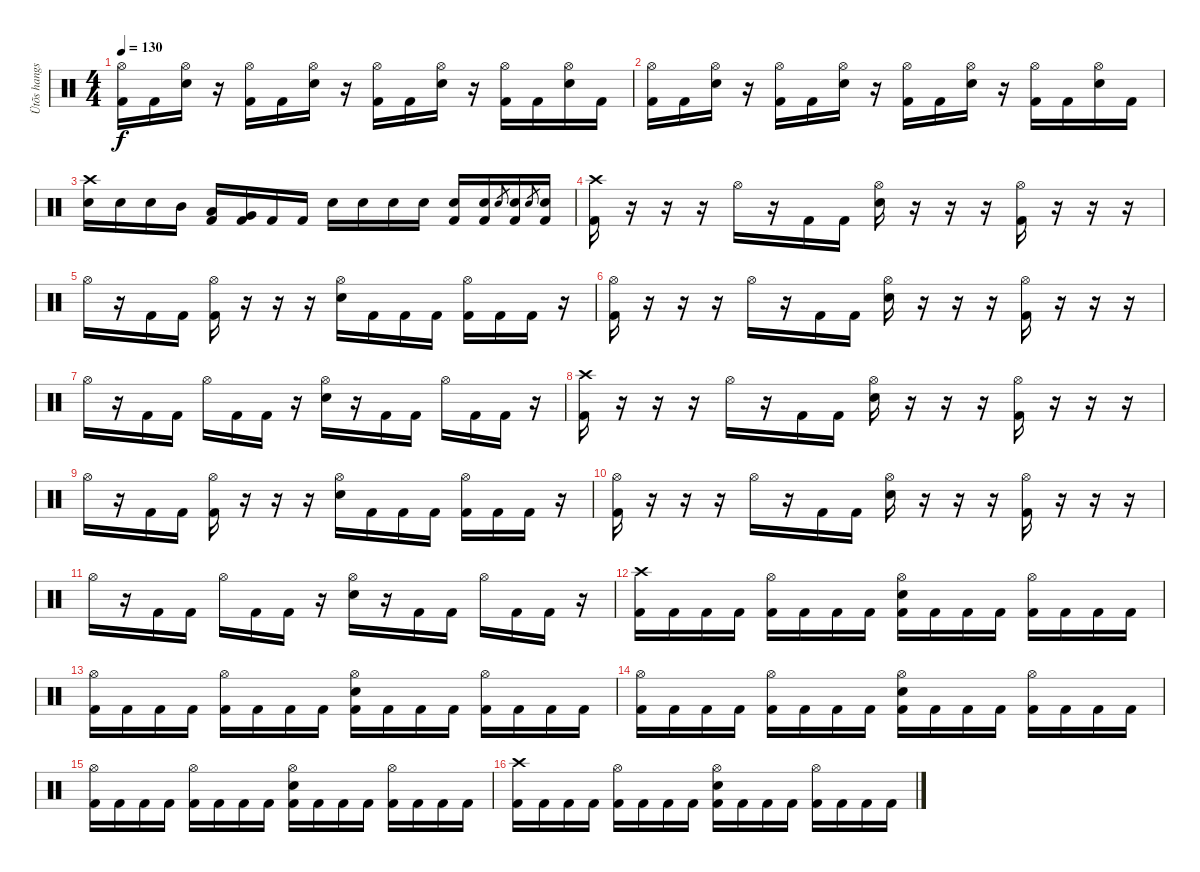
\track ("Ütõs hangszer" "Ütõs hangs") {instrument percussion}
\staff {score}
\articulation defaults
\ts (4 4)
\tempo 130
\clef neutral
\ks c
("Hi-Hat (open)" "Kick (hit) 2").16{dy f} "Kick (hit) 2".16 ("Hi-Hat (open)" "Snare (hit) 2").16 r.16 ("Hi-Hat (open)" "Kick (hit) 2").16 "Kick (hit) 2".16 ("Hi-Hat (open)" "Snare (hit) 2").16 r.16 ("Hi-Hat (open)" "Kick (hit) 2").16 "Kick (hit) 2".16 ("Hi-Hat (open)" "Snare (hit) 2").16 r.16 ("Hi-Hat (open)" "Kick (hit) 2").16 "Kick (hit) 2".16 ("Hi-Hat (open)" "Snare (hit) 2").16 "Kick (hit) 2".16 |
("Hi-Hat (open)" "Kick (hit) 2").16 "Kick (hit) 2".16 ("Hi-Hat (open)" "Snare (hit) 2").16 r.16 ("Hi-Hat (open)" "Kick (hit) 2").16 "Kick (hit) 2".16 ("Hi-Hat (open)" "Snare (hit) 2").16 r.16 ("Hi-Hat (open)" "Kick (hit) 2").16 "Kick (hit) 2".16 ("Hi-Hat (open)" "Snare (hit) 2").16 r.16 ("Hi-Hat (open)" "Kick (hit) 2").16 "Kick (hit) 2".16 ("Hi-Hat (open)" "Snare (hit) 2").16 "Kick (hit) 2".16 |
("Crash high (hit)" "Snare (hit) 2").16 "Snare (hit) 2".16 "Snare (hit) 2".16 "Mid Tom (hit)".16 ("Low Tom (hit)" "Kick (hit) 2").16 ("Very Low Tom (hit)" "Kick (hit) 2").16 "Kick (hit) 2".16 "Kick (hit) 2".16 "Snare (hit) 2".16 "Snare (hit) 2".16 "Snare (hit) 2".16 "Snare (hit) 2".16 ("Snare (hit) 2" "Kick (hit) 2").16 ("Snare (hit) 2" "Kick (hit) 2").16 "Snare (hit) 2".8{gr} ("Snare (hit) 2" "Kick (hit) 2").16 "Snare (hit) 2".8{gr} ("Snare (hit) 2" "Kick (hit) 2").16 |
("Crash high (hit)" "Kick (hit) 2").16 r.16 r.16 r.16 "Hi-Hat (open)".16 r.16 "Kick (hit) 2".16 "Kick (hit) 2".16 ("Hi-Hat (open)" "Snare (hit) 2").16 r.16 r.16 r.16 ("Hi-Hat (open)" "Kick (hit) 2").16 r.16 r.16 r.16 |
"Hi-Hat (open)".16 r.16 "Kick (hit) 2".16 "Kick (hit) 2".16 ("Hi-Hat (open)" "Kick (hit) 2").16 r.16 r.16 r.16 ("Hi-Hat (open)" "Snare (hit) 2").16 "Kick (hit) 2".16 "Kick (hit) 2".16 "Kick (hit) 2".16 ("Hi-Hat (open)" "Kick (hit) 2").16 "Kick (hit) 2".16 "Kick (hit) 2".16 r.16 |
("Hi-Hat (open)" "Kick (hit) 2").16 r.16 r.16 r.16 "Hi-Hat (open)".16 r.16 "Kick (hit) 2".16 "Kick (hit) 2".16 ("Hi-Hat (open)" "Snare (hit) 2").16 r.16 r.16 r.16 ("Hi-Hat (open)" "Kick (hit) 2").16 r.16 r.16 r.16 |
"Hi-Hat (open)".16 r.16 "Kick (hit) 2".16 "Kick (hit) 2".16 "Hi-Hat (open)".16 "Kick (hit) 2".16 "Kick (hit) 2".16 r.16 ("Hi-Hat (open)" "Snare (hit) 2").16 r.16 "Kick (hit) 2".16 "Kick (hit) 2".16 "Hi-Hat (open)".16 "Kick (hit) 2".16 "Kick (hit) 2".16 r.16 |
("Crash high (hit)" "Kick (hit) 2").16 r.16 r.16 r.16 "Hi-Hat (open)".16 r.16 "Kick (hit) 2".16 "Kick (hit) 2".16 ("Hi-Hat (open)" "Snare (hit) 2").16 r.16 r.16 r.16 ("Hi-Hat (open)" "Kick (hit) 2").16 r.16 r.16 r.16 |
"Hi-Hat (open)".16 r.16 "Kick (hit) 2".16 "Kick (hit) 2".16 ("Hi-Hat (open)" "Kick (hit) 2").16 r.16 r.16 r.16 ("Hi-Hat (open)" "Snare (hit) 2").16 "Kick (hit) 2".16 "Kick (hit) 2".16 "Kick (hit) 2".16 ("Hi-Hat (open)" "Kick (hit) 2").16 "Kick (hit) 2".16 "Kick (hit) 2".16 r.16 |
("Hi-Hat (open)" "Kick (hit) 2").16 r.16 r.16 r.16 "Hi-Hat (open)".16 r.16 "Kick (hit) 2".16 "Kick (hit) 2".16 ("Hi-Hat (open)" "Snare (hit) 2").16 r.16 r.16 r.16 ("Hi-Hat (open)" "Kick (hit) 2").16 r.16 r.16 r.16 |
"Hi-Hat (open)".16 r.16 "Kick (hit) 2".16 "Kick (hit) 2".16 "Hi-Hat (open)".16 "Kick (hit) 2".16 "Kick (hit) 2".16 r.16 ("Hi-Hat (open)" "Snare (hit) 2").16 r.16 "Kick (hit) 2".16 "Kick (hit) 2".16 "Hi-Hat (open)".16 "Kick (hit) 2".16 "Kick (hit) 2".16 r.16 |
("Crash high (hit)" "Kick (hit) 2").16 "Kick (hit) 2".16 "Kick (hit) 2".16 "Kick (hit) 2".16 ("Hi-Hat (open)" "Kick (hit) 2").16 "Kick (hit) 2".16 "Kick (hit) 2".16 "Kick (hit) 2".16 ("Hi-Hat (open)" "Snare (hit) 2" "Kick (hit) 2").16 "Kick (hit) 2".16 "Kick (hit) 2".16 "Kick (hit) 2".16 ("Hi-Hat (open)" "Kick (hit) 2").16 "Kick (hit) 2".16 "Kick (hit) 2".16 "Kick (hit) 2".16 |
("Hi-Hat (open)" "Kick (hit) 2").16 "Kick (hit) 2".16 "Kick (hit) 2".16 "Kick (hit) 2".16 ("Hi-Hat (open)" "Kick (hit) 2").16 "Kick (hit) 2".16 "Kick (hit) 2".16 "Kick (hit) 2".16 ("Hi-Hat (open)" "Snare (hit) 2" "Kick (hit) 2").16 "Kick (hit) 2".16 "Kick (hit) 2".16 "Kick (hit) 2".16 ("Hi-Hat (open)" "Kick (hit) 2").16 "Kick (hit) 2".16 "Kick (hit) 2".16 "Kick (hit) 2".16 |
("Hi-Hat (open)" "Kick (hit) 2").16 "Kick (hit) 2".16 "Kick (hit) 2".16 "Kick (hit) 2".16 ("Hi-Hat (open)" "Kick (hit) 2").16 "Kick (hit) 2".16 "Kick (hit) 2".16 "Kick (hit) 2".16 ("Hi-Hat (open)" "Snare (hit) 2" "Kick (hit) 2").16 "Kick (hit) 2".16 "Kick (hit) 2".16 "Kick (hit) 2".16 ("Hi-Hat (open)" "Kick (hit) 2").16 "Kick (hit) 2".16 "Kick (hit) 2".16 "Kick (hit) 2".16 |
("Hi-Hat (open)" "Kick (hit) 2").16 "Kick (hit) 2".16 "Kick (hit) 2".16 "Kick (hit) 2".16 ("Hi-Hat (open)" "Kick (hit) 2").16 "Kick (hit) 2".16 "Kick (hit) 2".16 "Kick (hit) 2".16 ("Hi-Hat (open)" "Snare (hit) 2" "Kick (hit) 2").16 "Kick (hit) 2".16 "Kick (hit) 2".16 "Kick (hit) 2".16 ("Hi-Hat (open)" "Kick (hit) 2").16 "Kick (hit) 2".16 "Kick (hit) 2".16 "Kick (hit) 2".16 |
("Crash high (hit)" "Kick (hit) 2").16 "Kick (hit) 2".16 "Kick (hit) 2".16 "Kick (hit) 2".16 ("Hi-Hat (open)" "Kick (hit) 2").16 "Kick (hit) 2".16 "Kick (hit) 2".16 "Kick (hit) 2".16 ("Hi-Hat (open)" "Snare (hit) 2" "Kick (hit) 2").16 "Kick (hit) 2".16 "Kick (hit) 2".16 "Kick (hit) 2".16 ("Hi-Hat (open)" "Kick (hit) 2").16 "Kick (hit) 2".16 "Kick (hit) 2".16 "Kick (hit) 2".16
